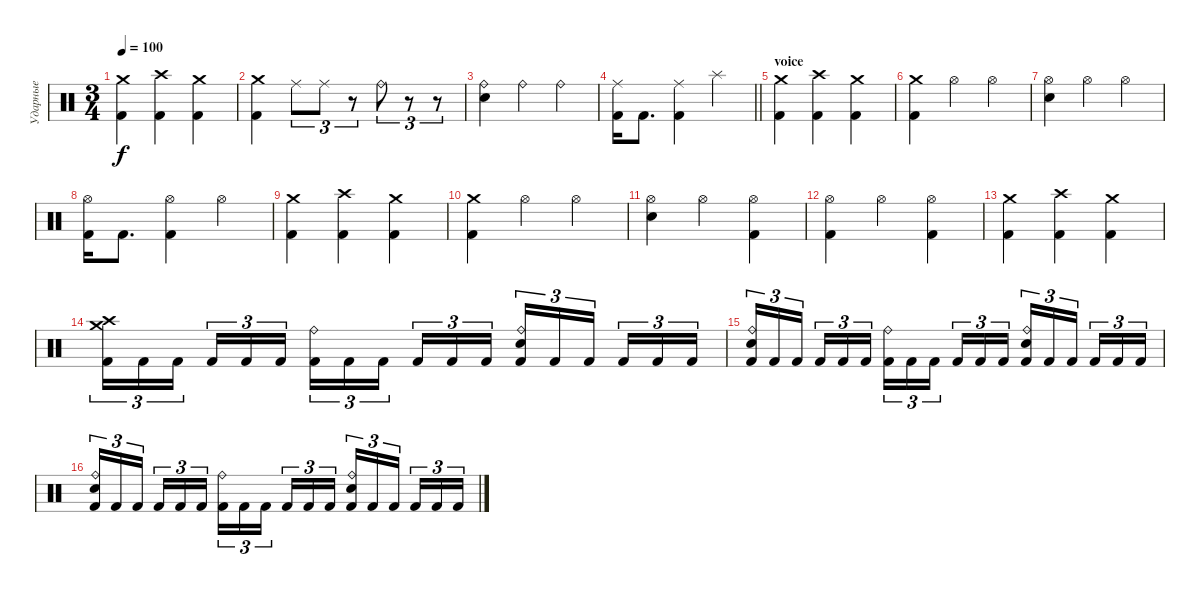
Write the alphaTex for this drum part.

\track ("Ударные" "Ударные") {instrument percussion}
\staff {score}
\articulation defaults
\ts (3 4)
\tempo 100
\clef neutral
\ks c
("Crash medium (hit)" "Kick (hit) 2").4{dy f} ("Crash high (hit)" "Kick (hit) 2").4 ("Crash medium (hit)" "Kick (hit) 2").4 |
("Crash medium (hit)" "Kick (hit) 2").4 "Ride (middle)".8{tu (3 2)} "Ride (middle)".8{tu (3 2)} r.8{tu (3 2)} "Ride (bell)".8{tu (3 2)} r.8{tu (3 2)} r.8{tu (3 2)} |
("Ride (bell)" "Electric Snare (hit)").4 "Ride (bell)".4 "Ride (bell)".4 |
\barLineRight lightlight
("Ride (middle)" "Kick (hit) 2").16 "Kick (hit) 2".8{d} ("Ride (middle)" "Kick (hit) 2").4 "Splash (hit)".4 |
\section ("" "voice")
("Crash medium (hit)" "Kick (hit) 2").4 ("Crash high (hit)" "Kick (hit) 2").4 ("Crash medium (hit)" "Kick (hit) 2").4 |
("Crash medium (hit)" "Kick (hit) 2").4 "Hi-Hat (open)".4 "Hi-Hat (open)".4 |
("Hi-Hat (open)" "Electric Snare (hit)").4 "Hi-Hat (open)".4 "Hi-Hat (open)".4 |
("Hi-Hat (open)" "Kick (hit) 2").16 "Kick (hit) 2".8{d} ("Hi-Hat (open)" "Kick (hit) 2").4 "Hi-Hat (open)".4 |
("Crash medium (hit)" "Kick (hit) 2").4 ("Crash high (hit)" "Kick (hit) 2").4 ("Crash medium (hit)" "Kick (hit) 2").4 |
("Crash medium (hit)" "Kick (hit) 2").4 "Hi-Hat (open)".4 "Hi-Hat (open)".4 |
("Hi-Hat (open)" "Electric Snare (hit)").4 "Hi-Hat (open)".4 ("Hi-Hat (open)" "Kick (hit) 2").4 |
("Hi-Hat (open)" "Kick (hit) 2").4 "Hi-Hat (open)".4 ("Hi-Hat (open)" "Kick (hit) 2").4 |
("Crash medium (hit)" "Kick (hit) 2").4 ("Crash high (hit)" "Kick (hit) 2").4 ("Crash medium (hit)" "Kick (hit) 2").4 |
("Crash high (hit)" "Crash medium (hit)" "Kick (hit) 2").16{tu (3 2)} "Kick (hit) 2".16{tu (3 2)} "Kick (hit) 2".16{tu (3 2) beam splitsecondary} "Kick (hit) 2".16{tu (3 2)} "Kick (hit) 2".16{tu (3 2)} "Kick (hit) 2".16{tu (3 2)} ("Ride (bell)" "Kick (hit) 2").16{tu (3 2)} "Kick (hit) 2".16{tu (3 2)} "Kick (hit) 2".16{tu (3 2) beam splitsecondary} "Kick (hit) 2".16{tu (3 2)} "Kick (hit) 2".16{tu (3 2)} "Kick (hit) 2".16{tu (3 2)} ("Ride (bell)" "Electric Snare (hit)" "Kick (hit) 2").16{tu (3 2)} "Kick (hit) 2".16{tu (3 2)} "Kick (hit) 2".16{tu (3 2) beam splitsecondary} "Kick (hit) 2".16{tu (3 2)} "Kick (hit) 2".16{tu (3 2)} "Kick (hit) 2".16{tu (3 2)} |
("Ride (bell)" "Electric Snare (hit)" "Kick (hit) 2").16{tu (3 2)} "Kick (hit) 2".16{tu (3 2)} "Kick (hit) 2".16{tu (3 2) beam splitsecondary} "Kick (hit) 2".16{tu (3 2)} "Kick (hit) 2".16{tu (3 2)} "Kick (hit) 2".16{tu (3 2)} ("Ride (bell)" "Kick (hit) 2").16{tu (3 2)} "Kick (hit) 2".16{tu (3 2)} "Kick (hit) 2".16{tu (3 2) beam splitsecondary} "Kick (hit) 2".16{tu (3 2)} "Kick (hit) 2".16{tu (3 2)} "Kick (hit) 2".16{tu (3 2)} ("Ride (bell)" "Electric Snare (hit)" "Kick (hit) 2").16{tu (3 2)} "Kick (hit) 2".16{tu (3 2)} "Kick (hit) 2".16{tu (3 2) beam splitsecondary} "Kick (hit) 2".16{tu (3 2)} "Kick (hit) 2".16{tu (3 2)} "Kick (hit) 2".16{tu (3 2)} |
("Ride (bell)" "Electric Snare (hit)" "Kick (hit) 2").16{tu (3 2)} "Kick (hit) 2".16{tu (3 2)} "Kick (hit) 2".16{tu (3 2) beam splitsecondary} "Kick (hit) 2".16{tu (3 2)} "Kick (hit) 2".16{tu (3 2)} "Kick (hit) 2".16{tu (3 2)} ("Ride (bell)" "Kick (hit) 2").16{tu (3 2)} "Kick (hit) 2".16{tu (3 2)} "Kick (hit) 2".16{tu (3 2) beam splitsecondary} "Kick (hit) 2".16{tu (3 2)} "Kick (hit) 2".16{tu (3 2)} "Kick (hit) 2".16{tu (3 2)} ("Ride (bell)" "Electric Snare (hit)" "Kick (hit) 2").16{tu (3 2)} "Kick (hit) 2".16{tu (3 2)} "Kick (hit) 2".16{tu (3 2) beam splitsecondary} "Kick (hit) 2".16{tu (3 2)} "Kick (hit) 2".16{tu (3 2)} "Kick (hit) 2".16{tu (3 2)}
